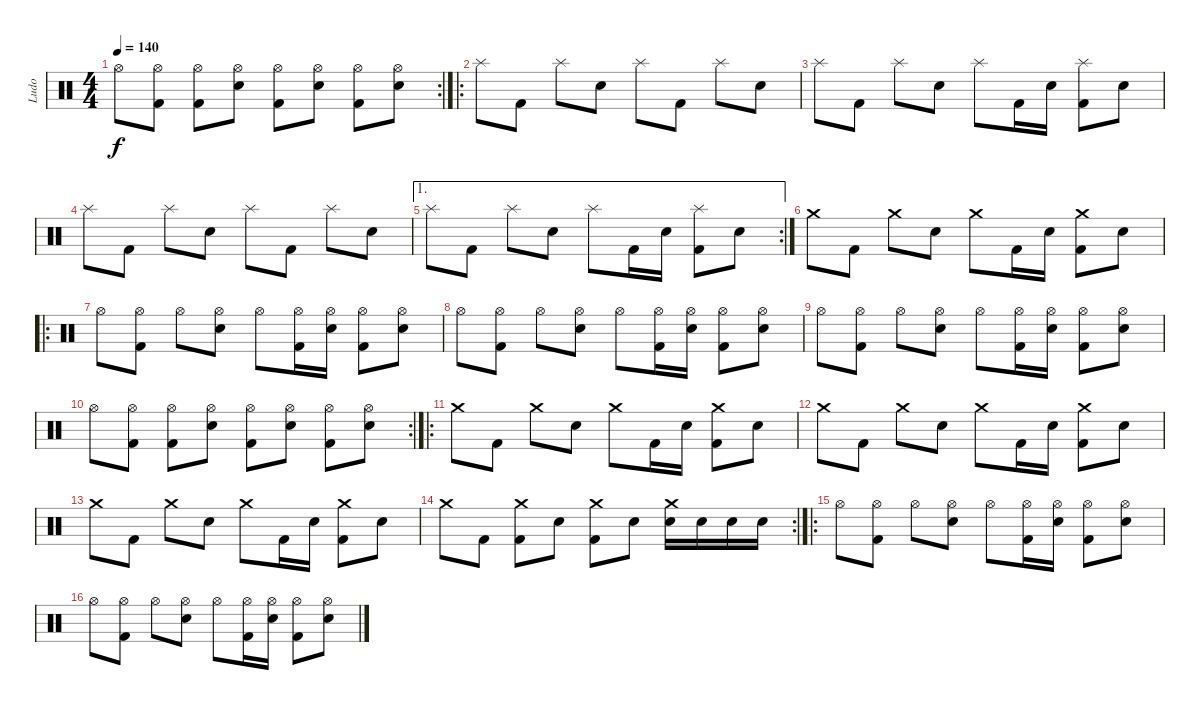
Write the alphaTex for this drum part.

\track ("Ludo" "Ludo") {instrument percussion}
\staff {score}
\articulation defaults
\rc 2
\ts (4 4)
\tempo 140
\clef neutral
\ks c "Hi-Hat (open)".8{dy f}
("Hi-Hat (open)" "Kick (hit) 2").8 ("Hi-Hat (open)" "Kick (hit) 2").8 ("Hi-Hat (open)" "Electric Snare (hit)").8 ("Hi-Hat (open)" "Kick (hit) 2").8 ("Hi-Hat (open)" "Electric Snare (hit)").8 ("Hi-Hat (open)" "Kick (hit) 2").8 ("Hi-Hat (open)" "Electric Snare (hit)").8 |
\ro "Splash (hit)".8 "Kick (hit) 2".8 "Splash (hit)".8 "Electric Snare (hit)".8 "Splash (hit)".8 "Kick (hit) 2".8 "Splash (hit)".8 "Electric Snare (hit)".8
|
"Splash (hit)".8 "Kick (hit) 2".8 "Splash (hit)".8 "Electric Snare (hit)".8 "Splash (hit)".8 "Kick (hit) 2".16 "Electric Snare (hit)".16 ("Splash (hit)" "Kick (hit) 2").8 "Electric Snare (hit)".8 |
"Splash (hit)".8 "Kick (hit) 2".8 "Splash (hit)".8 "Electric Snare (hit)".8 "Splash (hit)".8 "Kick (hit) 2".8 "Splash (hit)".8 "Electric Snare (hit)".8 |
\ae 1
\rc 2 "Splash (hit)".8 "Kick (hit) 2".8 "Splash (hit)".8 "Electric Snare (hit)".8 "Splash (hit)".8 "Kick (hit) 2".16 "Electric Snare (hit)".16
("Splash (hit)" "Kick (hit) 2").8 "Electric Snare (hit)".8 |
"Crash medium (hit)".8 "Kick (hit) 2".8 "Crash medium (hit)".8 "Electric Snare (hit)".8 "Crash medium (hit)".8 "Kick (hit) 2".16 "Electric Snare (hit)".16 ("Crash medium (hit)" "Kick (hit) 2").8 "Electric Snare (hit)".8 |
\ro "Hi-Hat (open)".8
("Hi-Hat (open)" "Kick (hit) 2").8 "Hi-Hat (open)".8 ("Hi-Hat (open)" "Electric Snare (hit)").8 "Hi-Hat (open)".8 ("Hi-Hat (open)" "Kick (hit) 2").16 ("Hi-Hat (open)" "Electric Snare (hit)").16 ("Hi-Hat (open)" "Kick (hit) 2").8 ("Hi-Hat (open)" "Electric Snare (hit)").8 |
"Hi-Hat (open)".8 ("Hi-Hat (open)" "Kick (hit) 2").8 "Hi-Hat (open)".8 ("Hi-Hat (open)" "Electric Snare (hit)").8 "Hi-Hat (open)".8 ("Hi-Hat (open)" "Kick (hit) 2").16 ("Hi-Hat (open)" "Electric Snare (hit)").16 ("Hi-Hat (open)" "Kick (hit) 2").8 ("Hi-Hat (open)" "Electric Snare (hit)").8 |
"Hi-Hat (open)".8 ("Hi-Hat (open)" "Kick (hit) 2").8 "Hi-Hat (open)".8 ("Hi-Hat (open)" "Electric Snare (hit)").8 "Hi-Hat (open)".8 ("Hi-Hat (open)" "Kick (hit) 2").16 ("Hi-Hat (open)" "Electric Snare (hit)").16 ("Hi-Hat (open)" "Kick (hit) 2").8 ("Hi-Hat (open)" "Electric Snare (hit)").8 |
\rc 2 "Hi-Hat (open)".8
("Hi-Hat (open)" "Kick (hit) 2").8 ("Hi-Hat (open)" "Kick (hit) 2").8 ("Hi-Hat (open)" "Electric Snare (hit)").8 ("Hi-Hat (open)" "Kick (hit) 2").8 ("Hi-Hat (open)" "Electric Snare (hit)").8 ("Hi-Hat (open)" "Kick (hit) 2").8 ("Hi-Hat (open)" "Electric Snare (hit)").8 |
\ro "Crash medium (hit)".8 "Kick (hit) 2".8 "Crash medium (hit)".8 "Electric Snare (hit)".8 "Crash medium (hit)".8 "Kick (hit) 2".16 "Electric Snare (hit)".16
("Crash medium (hit)" "Kick (hit) 2").8 "Electric Snare (hit)".8 |
"Crash medium (hit)".8 "Kick (hit) 2".8 "Crash medium (hit)".8 "Electric Snare (hit)".8 "Crash medium (hit)".8 "Kick (hit) 2".16 "Electric Snare (hit)".16 ("Crash medium (hit)" "Kick (hit) 2").8 "Electric Snare (hit)".8 |
"Crash medium (hit)".8 "Kick (hit) 2".8 "Crash medium (hit)".8 "Electric Snare (hit)".8 "Crash medium (hit)".8 "Kick (hit) 2".16 "Electric Snare (hit)".16 ("Crash medium (hit)" "Kick (hit) 2").8 "Electric Snare (hit)".8 |
\rc 2 "Crash medium (hit)".8 "Kick (hit) 2".8
("Crash medium (hit)" "Kick (hit) 2").8 "Electric Snare (hit)".8 ("Crash medium (hit)" "Kick (hit) 2").8 "Electric Snare (hit)".8 ("Crash medium (hit)" "Electric Snare (hit)").16 "Electric Snare (hit)".16 "Electric Snare (hit)".16 "Electric Snare (hit)".16 |
\ro "Hi-Hat (open)".8
("Hi-Hat (open)" "Kick (hit) 2").8 "Hi-Hat (open)".8 ("Hi-Hat (open)" "Electric Snare (hit)").8 "Hi-Hat (open)".8 ("Hi-Hat (open)" "Kick (hit) 2").16 ("Hi-Hat (open)" "Electric Snare (hit)").16 ("Hi-Hat (open)" "Kick (hit) 2").8 ("Hi-Hat (open)" "Electric Snare (hit)").8 |
"Hi-Hat (open)".8 ("Hi-Hat (open)" "Kick (hit) 2").8 "Hi-Hat (open)".8 ("Hi-Hat (open)" "Electric Snare (hit)").8 "Hi-Hat (open)".8 ("Hi-Hat (open)" "Kick (hit) 2").16 ("Hi-Hat (open)" "Electric Snare (hit)").16 ("Hi-Hat (open)" "Kick (hit) 2").8 ("Hi-Hat (open)" "Electric Snare (hit)").8
